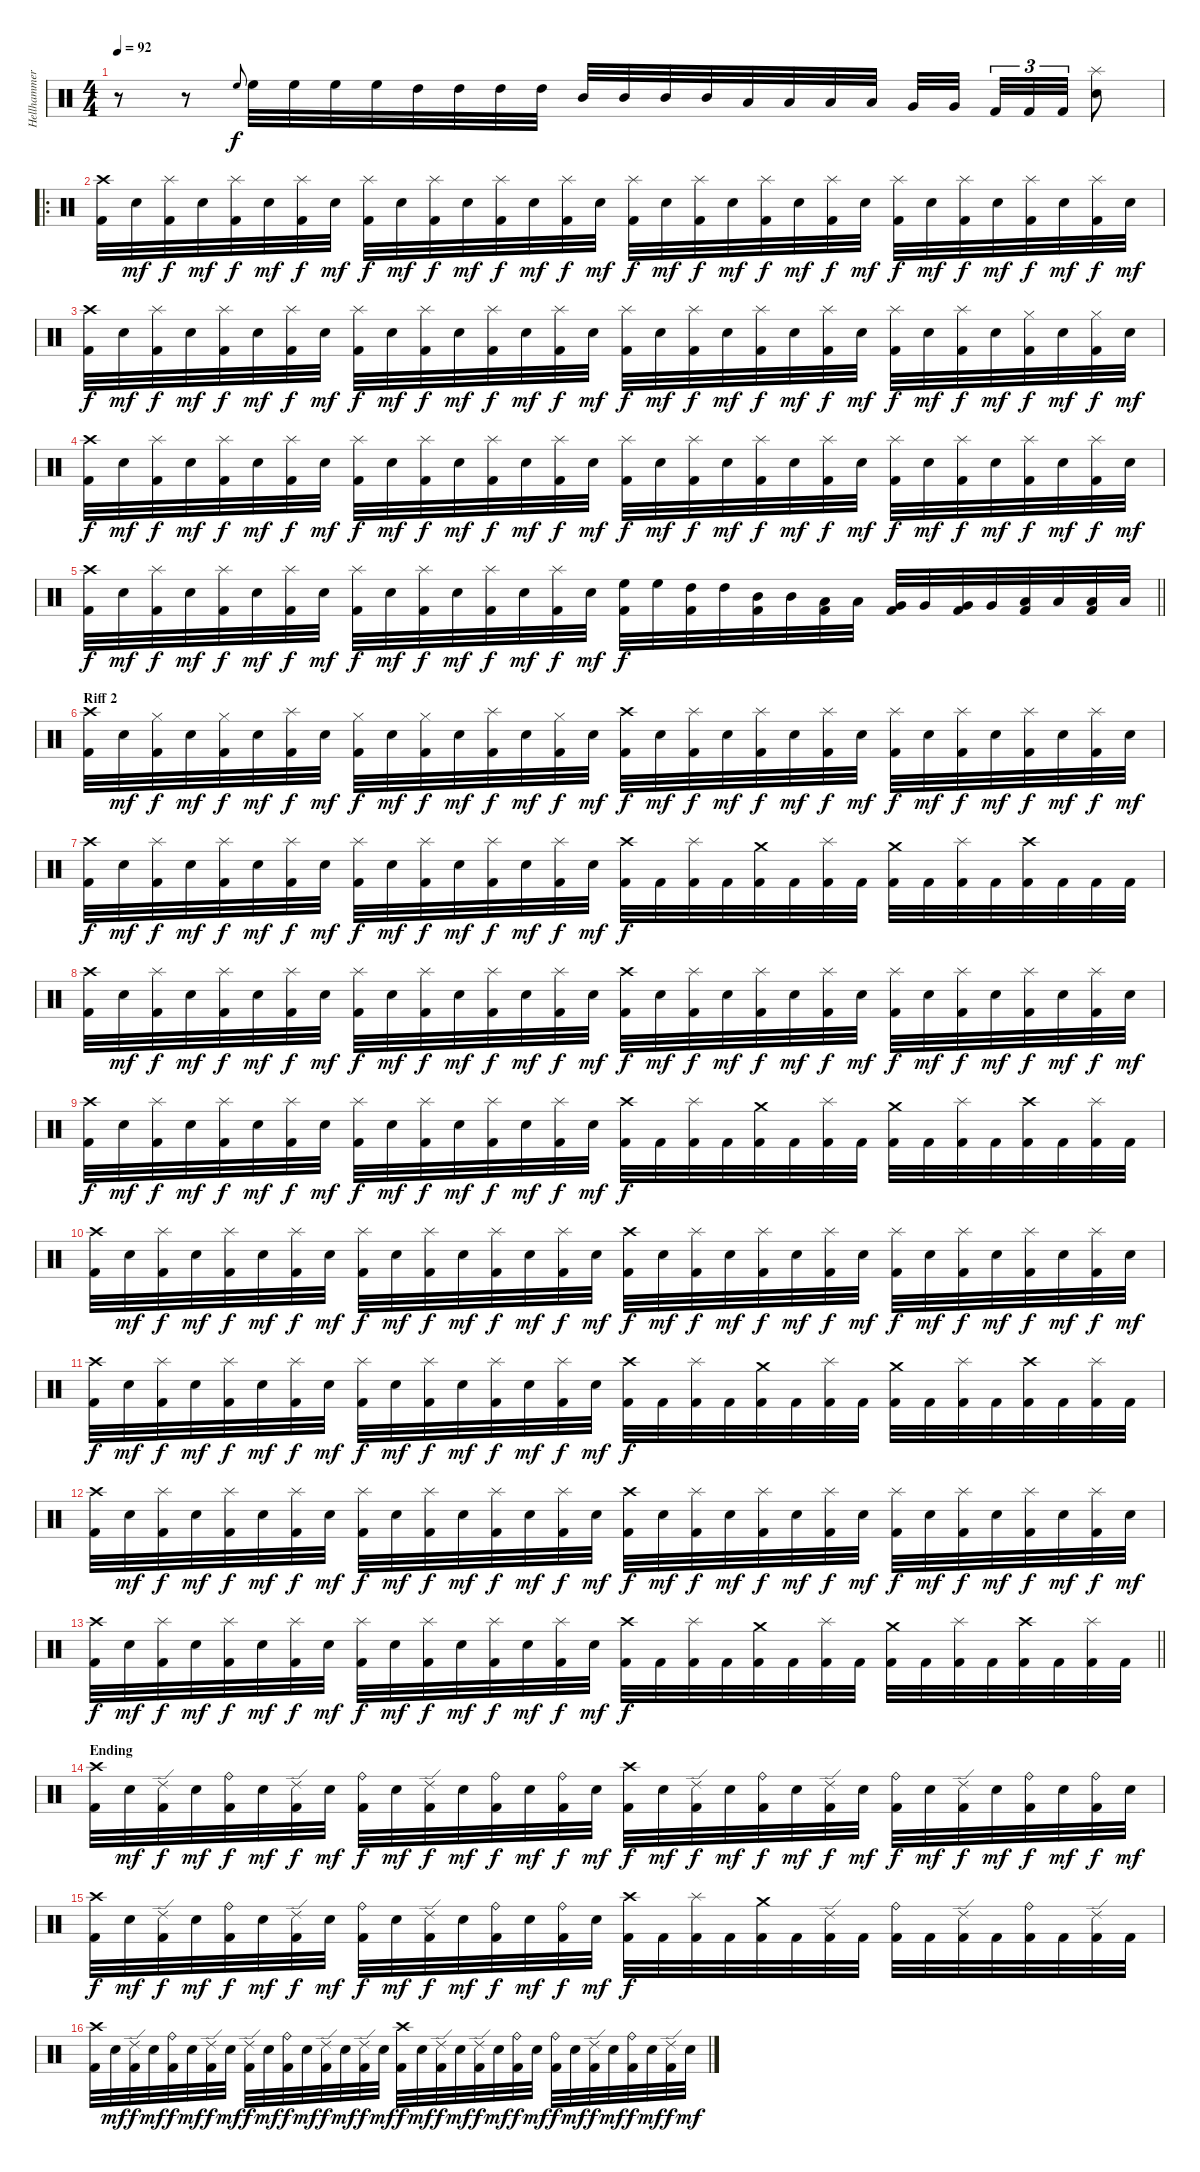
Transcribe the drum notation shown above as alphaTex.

\track ("Hellhammer" "Hellhammer") {instrument percussion}
\staff {score}
\articulation defaults
\ts (4 4)
\tempo 92
\clef neutral
\ks c
r.8{dy f} r.8 "High Floor Tom (hit)".8{gr onbeat} "High Floor Tom (hit)".32 "High Floor Tom (hit)".32 "High Floor Tom (hit)".32 "High Floor Tom (hit)".32 "High Tom (hit)".32 "High Tom (hit)".32 "High Tom (hit)".32 "High Tom (hit)".32 "Mid Tom (hit)".32 "Mid Tom (hit)".32 "Mid Tom (hit)".32 "Mid Tom (hit)".32 "Low Tom (hit)".32 "Low Tom (hit)".32 "Low Tom (hit)".32 "Low Tom (hit)".32 "Very Low Tom (hit)".32 "Very Low Tom (hit)".32{beam splitsecondary} "Kick (hit) 2".32{tu (3 2)} "Kick (hit) 2".32{tu (3 2)} "Kick (hit) 2".32{tu (3 2)} ("Splash (hit)" "Electric Snare (hit)").8 |
\ro
("Crash high (hit)" "Kick (hit) 2").32 "Electric Snare (hit)".32{dy mf} ("Splash (hit)" "Kick (hit) 2").32{dy f} "Electric Snare (hit)".32{dy mf} ("Splash (hit)" "Kick (hit) 2").32{dy f} "Electric Snare (hit)".32{dy mf} ("Splash (hit)" "Kick (hit) 2").32{dy f} "Electric Snare (hit)".32{dy mf} ("Splash (hit)" "Kick (hit) 2").32{dy f} "Electric Snare (hit)".32{dy mf} ("Splash (hit)" "Kick (hit) 2").32{dy f} "Electric Snare (hit)".32{dy mf} ("Splash (hit)" "Kick (hit) 2").32{dy f} "Electric Snare (hit)".32{dy mf} ("Splash (hit)" "Kick (hit) 2").32{dy f} "Electric Snare (hit)".32{dy mf} ("Splash (hit)" "Kick (hit) 2").32{dy f} "Electric Snare (hit)".32{dy mf} ("Splash (hit)" "Kick (hit) 2").32{dy f} "Electric Snare (hit)".32{dy mf} ("Splash (hit)" "Kick (hit) 2").32{dy f} "Electric Snare (hit)".32{dy mf} ("Splash (hit)" "Kick (hit) 2").32{dy f} "Electric Snare (hit)".32{dy mf} ("Splash (hit)" "Kick (hit) 2").32{dy f} "Electric Snare (hit)".32{dy mf} ("Splash (hit)" "Kick (hit) 2").32{dy f} "Electric Snare (hit)".32{dy mf} ("Splash (hit)" "Kick (hit) 2").32{dy f} "Electric Snare (hit)".32{dy mf} ("Splash (hit)" "Kick (hit) 2").32{dy f} "Electric Snare (hit)".32{dy mf} |
("Crash high (hit)" "Kick (hit) 2").32{dy f} "Electric Snare (hit)".32{dy mf} ("Splash (hit)" "Kick (hit) 2").32{dy f} "Electric Snare (hit)".32{dy mf} ("Splash (hit)" "Kick (hit) 2").32{dy f} "Electric Snare (hit)".32{dy mf} ("Splash (hit)" "Kick (hit) 2").32{dy f} "Electric Snare (hit)".32{dy mf} ("Splash (hit)" "Kick (hit) 2").32{dy f} "Electric Snare (hit)".32{dy mf} ("Splash (hit)" "Kick (hit) 2").32{dy f} "Electric Snare (hit)".32{dy mf} ("Splash (hit)" "Kick (hit) 2").32{dy f} "Electric Snare (hit)".32{dy mf} ("Splash (hit)" "Kick (hit) 2").32{dy f} "Electric Snare (hit)".32{dy mf} ("Splash (hit)" "Kick (hit) 2").32{dy f} "Electric Snare (hit)".32{dy mf} ("Splash (hit)" "Kick (hit) 2").32{dy f} "Electric Snare (hit)".32{dy mf} ("Splash (hit)" "Kick (hit) 2").32{dy f} "Electric Snare (hit)".32{dy mf} ("Splash (hit)" "Kick (hit) 2").32{dy f} "Electric Snare (hit)".32{dy mf} ("Splash (hit)" "Kick (hit) 2").32{dy f} "Electric Snare (hit)".32{dy mf} ("Splash (hit)" "Kick (hit) 2").32{dy f} "Electric Snare (hit)".32{dy mf} ("Hi-Hat (closed)" "Kick (hit) 2").32{dy f} "Electric Snare (hit)".32{dy mf} ("Hi-Hat (closed)" "Kick (hit) 2").32{dy f} "Electric Snare (hit)".32{dy mf} |
("Crash high (hit)" "Kick (hit) 2").32{dy f} "Electric Snare (hit)".32{dy mf} ("Splash (hit)" "Kick (hit) 2").32{dy f} "Electric Snare (hit)".32{dy mf} ("Splash (hit)" "Kick (hit) 2").32{dy f} "Electric Snare (hit)".32{dy mf} ("Splash (hit)" "Kick (hit) 2").32{dy f} "Electric Snare (hit)".32{dy mf} ("Splash (hit)" "Kick (hit) 2").32{dy f} "Electric Snare (hit)".32{dy mf} ("Splash (hit)" "Kick (hit) 2").32{dy f} "Electric Snare (hit)".32{dy mf} ("Splash (hit)" "Kick (hit) 2").32{dy f} "Electric Snare (hit)".32{dy mf} ("Splash (hit)" "Kick (hit) 2").32{dy f} "Electric Snare (hit)".32{dy mf} ("Splash (hit)" "Kick (hit) 2").32{dy f} "Electric Snare (hit)".32{dy mf} ("Splash (hit)" "Kick (hit) 2").32{dy f} "Electric Snare (hit)".32{dy mf} ("Splash (hit)" "Kick (hit) 2").32{dy f} "Electric Snare (hit)".32{dy mf} ("Splash (hit)" "Kick (hit) 2").32{dy f} "Electric Snare (hit)".32{dy mf} ("Splash (hit)" "Kick (hit) 2").32{dy f} "Electric Snare (hit)".32{dy mf} ("Splash (hit)" "Kick (hit) 2").32{dy f} "Electric Snare (hit)".32{dy mf} ("Splash (hit)" "Kick (hit) 2").32{dy f} "Electric Snare (hit)".32{dy mf} ("Splash (hit)" "Kick (hit) 2").32{dy f} "Electric Snare (hit)".32{dy mf} |
\barLineRight lightlight
("Crash high (hit)" "Kick (hit) 2").32{dy f} "Electric Snare (hit)".32{dy mf} ("Splash (hit)" "Kick (hit) 2").32{dy f} "Electric Snare (hit)".32{dy mf} ("Splash (hit)" "Kick (hit) 2").32{dy f} "Electric Snare (hit)".32{dy mf} ("Splash (hit)" "Kick (hit) 2").32{dy f} "Electric Snare (hit)".32{dy mf} ("Splash (hit)" "Kick (hit) 2").32{dy f} "Electric Snare (hit)".32{dy mf} ("Splash (hit)" "Kick (hit) 2").32{dy f} "Electric Snare (hit)".32{dy mf} ("Splash (hit)" "Kick (hit) 2").32{dy f} "Electric Snare (hit)".32{dy mf} ("Splash (hit)" "Kick (hit) 2").32{dy f} "Electric Snare (hit)".32{dy mf} ("High Floor Tom (hit)" "Kick (hit) 2").32{dy f} "High Floor Tom (hit)".32 ("High Tom (hit)" "Kick (hit) 2").32 "High Tom (hit)".32 ("Mid Tom (hit)" "Kick (hit) 2").32 "Mid Tom (hit)".32 ("Low Tom (hit)" "Kick (hit) 2").32 "Low Tom (hit)".32 ("Very Low Tom (hit)" "Kick (hit) 2").32 "Very Low Tom (hit)".32 ("Very Low Tom (hit)" "Kick (hit) 2").32 "Very Low Tom (hit)".32 ("Low Floor Tom (hit)" "Kick (hit) 2").32 "Low Floor Tom (hit)".32 ("Low Floor Tom (hit)" "Kick (hit) 2").32 "Low Floor Tom (hit)".32 |
\section ("" "Riff 2")
("Crash high (hit)" "Kick (hit) 2").32 "Electric Snare (hit)".32{dy mf} ("Hi-Hat (closed)" "Kick (hit) 2").32{dy f} "Electric Snare (hit)".32{dy mf} ("Hi-Hat (closed)" "Kick (hit) 2").32{dy f} "Electric Snare (hit)".32{dy mf} ("Splash (hit)" "Kick (hit) 2").32{dy f} "Electric Snare (hit)".32{dy mf} ("Hi-Hat (closed)" "Kick (hit) 2").32{dy f} "Electric Snare (hit)".32{dy mf} ("Hi-Hat (closed)" "Kick (hit) 2").32{dy f} "Electric Snare (hit)".32{dy mf} ("Splash (hit)" "Kick (hit) 2").32{dy f} "Electric Snare (hit)".32{dy mf} ("Hi-Hat (closed)" "Kick (hit) 2").32{dy f} "Electric Snare (hit)".32{dy mf} ("Crash high (hit)" "Kick (hit) 2").32{dy f} "Electric Snare (hit)".32{dy mf} ("Splash (hit)" "Kick (hit) 2").32{dy f} "Electric Snare (hit)".32{dy mf} ("Splash (hit)" "Kick (hit) 2").32{dy f} "Electric Snare (hit)".32{dy mf} ("Splash (hit)" "Kick (hit) 2").32{dy f} "Electric Snare (hit)".32{dy mf} ("Splash (hit)" "Kick (hit) 2").32{dy f} "Electric Snare (hit)".32{dy mf} ("Splash (hit)" "Kick (hit) 2").32{dy f} "Electric Snare (hit)".32{dy mf} ("Splash (hit)" "Kick (hit) 2").32{dy f} "Electric Snare (hit)".32{dy mf} ("Splash (hit)" "Kick (hit) 2").32{dy f} "Electric Snare (hit)".32{dy mf} |
("Crash high (hit)" "Kick (hit) 2").32{dy f} "Electric Snare (hit)".32{dy mf} ("Splash (hit)" "Kick (hit) 2").32{dy f} "Electric Snare (hit)".32{dy mf} ("Splash (hit)" "Kick (hit) 2").32{dy f} "Electric Snare (hit)".32{dy mf} ("Splash (hit)" "Kick (hit) 2").32{dy f} "Electric Snare (hit)".32{dy mf} ("Splash (hit)" "Kick (hit) 2").32{dy f} "Electric Snare (hit)".32{dy mf} ("Splash (hit)" "Kick (hit) 2").32{dy f} "Electric Snare (hit)".32{dy mf} ("Splash (hit)" "Kick (hit) 2").32{dy f} "Electric Snare (hit)".32{dy mf} ("Splash (hit)" "Kick (hit) 2").32{dy f} "Electric Snare (hit)".32{dy mf} ("Crash high (hit)" "Kick (hit) 2").32{dy f} "Kick (hit) 2".32 ("Splash (hit)" "Kick (hit) 2").32 "Kick (hit) 2".32 ("Crash medium (hit)" "Kick (hit) 2").32 "Kick (hit) 2".32 ("Splash (hit)" "Kick (hit) 2").32 "Kick (hit) 2".32 ("Crash medium (hit)" "Kick (hit) 2").32 "Kick (hit) 2".32 ("Splash (hit)" "Kick (hit) 2").32 "Kick (hit) 2".32 ("Crash high (hit)" "Kick (hit) 2").32 "Kick (hit) 2".32 "Kick (hit) 2".32 "Kick (hit) 2".32 |
("Crash high (hit)" "Kick (hit) 2").32 "Electric Snare (hit)".32{dy mf} ("Splash (hit)" "Kick (hit) 2").32{dy f} "Electric Snare (hit)".32{dy mf} ("Splash (hit)" "Kick (hit) 2").32{dy f} "Electric Snare (hit)".32{dy mf} ("Splash (hit)" "Kick (hit) 2").32{dy f} "Electric Snare (hit)".32{dy mf} ("Splash (hit)" "Kick (hit) 2").32{dy f} "Electric Snare (hit)".32{dy mf} ("Splash (hit)" "Kick (hit) 2").32{dy f} "Electric Snare (hit)".32{dy mf} ("Splash (hit)" "Kick (hit) 2").32{dy f} "Electric Snare (hit)".32{dy mf} ("Splash (hit)" "Kick (hit) 2").32{dy f} "Electric Snare (hit)".32{dy mf} ("Crash high (hit)" "Kick (hit) 2").32{dy f} "Electric Snare (hit)".32{dy mf} ("Splash (hit)" "Kick (hit) 2").32{dy f} "Electric Snare (hit)".32{dy mf} ("Splash (hit)" "Kick (hit) 2").32{dy f} "Electric Snare (hit)".32{dy mf} ("Splash (hit)" "Kick (hit) 2").32{dy f} "Electric Snare (hit)".32{dy mf} ("Splash (hit)" "Kick (hit) 2").32{dy f} "Electric Snare (hit)".32{dy mf} ("Splash (hit)" "Kick (hit) 2").32{dy f} "Electric Snare (hit)".32{dy mf} ("Splash (hit)" "Kick (hit) 2").32{dy f} "Electric Snare (hit)".32{dy mf} ("Splash (hit)" "Kick (hit) 2").32{dy f} "Electric Snare (hit)".32{dy mf} |
("Crash high (hit)" "Kick (hit) 2").32{dy f} "Electric Snare (hit)".32{dy mf} ("Splash (hit)" "Kick (hit) 2").32{dy f} "Electric Snare (hit)".32{dy mf} ("Splash (hit)" "Kick (hit) 2").32{dy f} "Electric Snare (hit)".32{dy mf} ("Splash (hit)" "Kick (hit) 2").32{dy f} "Electric Snare (hit)".32{dy mf} ("Splash (hit)" "Kick (hit) 2").32{dy f} "Electric Snare (hit)".32{dy mf} ("Splash (hit)" "Kick (hit) 2").32{dy f} "Electric Snare (hit)".32{dy mf} ("Splash (hit)" "Kick (hit) 2").32{dy f} "Electric Snare (hit)".32{dy mf} ("Splash (hit)" "Kick (hit) 2").32{dy f} "Electric Snare (hit)".32{dy mf} ("Crash high (hit)" "Kick (hit) 2").32{dy f} "Kick (hit) 2".32 ("Splash (hit)" "Kick (hit) 2").32 "Kick (hit) 2".32 ("Crash medium (hit)" "Kick (hit) 2").32 "Kick (hit) 2".32 ("Splash (hit)" "Kick (hit) 2").32 "Kick (hit) 2".32 ("Crash medium (hit)" "Kick (hit) 2").32 "Kick (hit) 2".32 ("Splash (hit)" "Kick (hit) 2").32 "Kick (hit) 2".32 ("Crash high (hit)" "Kick (hit) 2").32 "Kick (hit) 2".32 ("Splash (hit)" "Kick (hit) 2").32 "Kick (hit) 2".32 |
("Crash high (hit)" "Kick (hit) 2").32 "Electric Snare (hit)".32{dy mf} ("Splash (hit)" "Kick (hit) 2").32{dy f} "Electric Snare (hit)".32{dy mf} ("Splash (hit)" "Kick (hit) 2").32{dy f} "Electric Snare (hit)".32{dy mf} ("Splash (hit)" "Kick (hit) 2").32{dy f} "Electric Snare (hit)".32{dy mf} ("Splash (hit)" "Kick (hit) 2").32{dy f} "Electric Snare (hit)".32{dy mf} ("Splash (hit)" "Kick (hit) 2").32{dy f} "Electric Snare (hit)".32{dy mf} ("Splash (hit)" "Kick (hit) 2").32{dy f} "Electric Snare (hit)".32{dy mf} ("Splash (hit)" "Kick (hit) 2").32{dy f} "Electric Snare (hit)".32{dy mf} ("Crash high (hit)" "Kick (hit) 2").32{dy f} "Electric Snare (hit)".32{dy mf} ("Splash (hit)" "Kick (hit) 2").32{dy f} "Electric Snare (hit)".32{dy mf} ("Splash (hit)" "Kick (hit) 2").32{dy f} "Electric Snare (hit)".32{dy mf} ("Splash (hit)" "Kick (hit) 2").32{dy f} "Electric Snare (hit)".32{dy mf} ("Splash (hit)" "Kick (hit) 2").32{dy f} "Electric Snare (hit)".32{dy mf} ("Splash (hit)" "Kick (hit) 2").32{dy f} "Electric Snare (hit)".32{dy mf} ("Splash (hit)" "Kick (hit) 2").32{dy f} "Electric Snare (hit)".32{dy mf} ("Splash (hit)" "Kick (hit) 2").32{dy f} "Electric Snare (hit)".32{dy mf} |
("Crash high (hit)" "Kick (hit) 2").32{dy f} "Electric Snare (hit)".32{dy mf} ("Splash (hit)" "Kick (hit) 2").32{dy f} "Electric Snare (hit)".32{dy mf} ("Splash (hit)" "Kick (hit) 2").32{dy f} "Electric Snare (hit)".32{dy mf} ("Splash (hit)" "Kick (hit) 2").32{dy f} "Electric Snare (hit)".32{dy mf} ("Splash (hit)" "Kick (hit) 2").32{dy f} "Electric Snare (hit)".32{dy mf} ("Splash (hit)" "Kick (hit) 2").32{dy f} "Electric Snare (hit)".32{dy mf} ("Splash (hit)" "Kick (hit) 2").32{dy f} "Electric Snare (hit)".32{dy mf} ("Splash (hit)" "Kick (hit) 2").32{dy f} "Electric Snare (hit)".32{dy mf} ("Crash high (hit)" "Kick (hit) 2").32{dy f} "Kick (hit) 2".32 ("Splash (hit)" "Kick (hit) 2").32 "Kick (hit) 2".32 ("Crash medium (hit)" "Kick (hit) 2").32 "Kick (hit) 2".32 ("Splash (hit)" "Kick (hit) 2").32 "Kick (hit) 2".32 ("Crash medium (hit)" "Kick (hit) 2").32 "Kick (hit) 2".32 ("Splash (hit)" "Kick (hit) 2").32 "Kick (hit) 2".32 ("Crash high (hit)" "Kick (hit) 2").32 "Kick (hit) 2".32 ("Splash (hit)" "Kick (hit) 2").32 "Kick (hit) 2".32 |
("Crash high (hit)" "Kick (hit) 2").32 "Electric Snare (hit)".32{dy mf} ("Splash (hit)" "Kick (hit) 2").32{dy f} "Electric Snare (hit)".32{dy mf} ("Splash (hit)" "Kick (hit) 2").32{dy f} "Electric Snare (hit)".32{dy mf} ("Splash (hit)" "Kick (hit) 2").32{dy f} "Electric Snare (hit)".32{dy mf} ("Splash (hit)" "Kick (hit) 2").32{dy f} "Electric Snare (hit)".32{dy mf} ("Splash (hit)" "Kick (hit) 2").32{dy f} "Electric Snare (hit)".32{dy mf} ("Splash (hit)" "Kick (hit) 2").32{dy f} "Electric Snare (hit)".32{dy mf} ("Splash (hit)" "Kick (hit) 2").32{dy f} "Electric Snare (hit)".32{dy mf} ("Crash high (hit)" "Kick (hit) 2").32{dy f} "Electric Snare (hit)".32{dy mf} ("Splash (hit)" "Kick (hit) 2").32{dy f} "Electric Snare (hit)".32{dy mf} ("Splash (hit)" "Kick (hit) 2").32{dy f} "Electric Snare (hit)".32{dy mf} ("Splash (hit)" "Kick (hit) 2").32{dy f} "Electric Snare (hit)".32{dy mf} ("Splash (hit)" "Kick (hit) 2").32{dy f} "Electric Snare (hit)".32{dy mf} ("Splash (hit)" "Kick (hit) 2").32{dy f} "Electric Snare (hit)".32{dy mf} ("Splash (hit)" "Kick (hit) 2").32{dy f} "Electric Snare (hit)".32{dy mf} ("Splash (hit)" "Kick (hit) 2").32{dy f} "Electric Snare (hit)".32{dy mf} |
\barLineRight lightlight
("Crash high (hit)" "Kick (hit) 2").32{dy f} "Electric Snare (hit)".32{dy mf} ("Splash (hit)" "Kick (hit) 2").32{dy f} "Electric Snare (hit)".32{dy mf} ("Splash (hit)" "Kick (hit) 2").32{dy f} "Electric Snare (hit)".32{dy mf} ("Splash (hit)" "Kick (hit) 2").32{dy f} "Electric Snare (hit)".32{dy mf} ("Splash (hit)" "Kick (hit) 2").32{dy f} "Electric Snare (hit)".32{dy mf} ("Splash (hit)" "Kick (hit) 2").32{dy f} "Electric Snare (hit)".32{dy mf} ("Splash (hit)" "Kick (hit) 2").32{dy f} "Electric Snare (hit)".32{dy mf} ("Splash (hit)" "Kick (hit) 2").32{dy f} "Electric Snare (hit)".32{dy mf} ("Crash high (hit)" "Kick (hit) 2").32{dy f} "Kick (hit) 2".32 ("Splash (hit)" "Kick (hit) 2").32 "Kick (hit) 2".32 ("Crash medium (hit)" "Kick (hit) 2").32 "Kick (hit) 2".32 ("Splash (hit)" "Kick (hit) 2").32 "Kick (hit) 2".32 ("Crash medium (hit)" "Kick (hit) 2").32 "Kick (hit) 2".32 ("Splash (hit)" "Kick (hit) 2").32 "Kick (hit) 2".32 ("Crash high (hit)" "Kick (hit) 2").32 "Kick (hit) 2".32 ("Splash (hit)" "Kick (hit) 2").32 "Kick (hit) 2".32 |
\section ("" "Ending")
("Crash high (hit)" "Kick (hit) 2").32 "Electric Snare (hit)".32{dy mf} ("Ride (edge) 2" "Kick (hit) 2").32{dy f} "Electric Snare (hit)".32{dy mf} ("Ride (bell)" "Kick (hit) 2").32{dy f} "Electric Snare (hit)".32{dy mf} ("Ride (edge) 2" "Kick (hit) 2").32{dy f} "Electric Snare (hit)".32{dy mf} ("Ride (bell)" "Kick (hit) 2").32{dy f} "Electric Snare (hit)".32{dy mf} ("Ride (edge) 2" "Kick (hit) 2").32{dy f} "Electric Snare (hit)".32{dy mf} ("Ride (bell)" "Kick (hit) 2").32{dy f} "Electric Snare (hit)".32{dy mf} ("Ride (bell)" "Kick (hit) 2").32{dy f} "Electric Snare (hit)".32{dy mf} ("Crash high (hit)" "Kick (hit) 2").32{dy f} "Electric Snare (hit)".32{dy mf} ("Ride (edge) 2" "Kick (hit) 2").32{dy f} "Electric Snare (hit)".32{dy mf} ("Ride (bell)" "Kick (hit) 2").32{dy f} "Electric Snare (hit)".32{dy mf} ("Ride (edge) 2" "Kick (hit) 2").32{dy f} "Electric Snare (hit)".32{dy mf} ("Ride (bell)" "Kick (hit) 2").32{dy f} "Electric Snare (hit)".32{dy mf} ("Ride (edge) 2" "Kick (hit) 2").32{dy f} "Electric Snare (hit)".32{dy mf} ("Ride (bell)" "Kick (hit) 2").32{dy f} "Electric Snare (hit)".32{dy mf} ("Ride (bell)" "Kick (hit) 2").32{dy f} "Electric Snare (hit)".32{dy mf} |
("Crash high (hit)" "Kick (hit) 2").32{dy f} "Electric Snare (hit)".32{dy mf} ("Ride (edge) 2" "Kick (hit) 2").32{dy f} "Electric Snare (hit)".32{dy mf} ("Ride (bell)" "Kick (hit) 2").32{dy f} "Electric Snare (hit)".32{dy mf} ("Ride (edge) 2" "Kick (hit) 2").32{dy f} "Electric Snare (hit)".32{dy mf} ("Ride (bell)" "Kick (hit) 2").32{dy f} "Electric Snare (hit)".32{dy mf} ("Ride (edge) 2" "Kick (hit) 2").32{dy f} "Electric Snare (hit)".32{dy mf} ("Ride (bell)" "Kick (hit) 2").32{dy f} "Electric Snare (hit)".32{dy mf} ("Ride (bell)" "Kick (hit) 2").32{dy f} "Electric Snare (hit)".32{dy mf} ("Crash high (hit)" "Kick (hit) 2").32{dy f} "Kick (hit) 2".32 ("Splash (hit)" "Kick (hit) 2").32 "Kick (hit) 2".32 ("Crash medium (hit)" "Kick (hit) 2").32 "Kick (hit) 2".32 ("Ride (edge) 2" "Kick (hit) 2").32 "Kick (hit) 2".32 ("Ride (bell)" "Kick (hit) 2").32 "Kick (hit) 2".32 ("Ride (edge) 2" "Kick (hit) 2").32 "Kick (hit) 2".32 ("Ride (bell)" "Kick (hit) 2").32 "Kick (hit) 2".32 ("Ride (edge) 2" "Kick (hit) 2").32 "Kick (hit) 2".32 |
("Crash high (hit)" "Kick (hit) 2").32 "Electric Snare (hit)".32{dy mf} ("Ride (edge) 2" "Kick (hit) 2").32{dy f} "Electric Snare (hit)".32{dy mf} ("Ride (bell)" "Kick (hit) 2").32{dy f} "Electric Snare (hit)".32{dy mf} ("Ride (edge) 2" "Kick (hit) 2").32{dy f} "Electric Snare (hit)".32{dy mf} ("Ride (edge) 2" "Kick (hit) 2").32{dy f} "Electric Snare (hit)".32{dy mf} ("Ride (bell)" "Kick (hit) 2").32{dy f} "Electric Snare (hit)".32{dy mf} ("Ride (edge) 2" "Kick (hit) 2").32{dy f} "Electric Snare (hit)".32{dy mf} ("Ride (edge) 2" "Kick (hit) 2").32{dy f} "Electric Snare (hit)".32{dy mf} ("Crash high (hit)" "Kick (hit) 2").32{dy f} "Electric Snare (hit)".32{dy mf} ("Ride (edge) 2" "Kick (hit) 2").32{dy f} "Electric Snare (hit)".32{dy mf} ("Ride (edge) 2" "Kick (hit) 2").32{dy f} "Electric Snare (hit)".32{dy mf} ("Ride (bell)" "Kick (hit) 2").32{dy f} "Electric Snare (hit)".32{dy mf} ("Ride (bell)" "Kick (hit) 2").32{dy f} "Electric Snare (hit)".32{dy mf} ("Ride (edge) 2" "Kick (hit) 2").32{dy f} "Electric Snare (hit)".32{dy mf} ("Ride (bell)" "Kick (hit) 2").32{dy f} "Electric Snare (hit)".32{dy mf} ("Ride (edge) 2" "Kick (hit) 2").32{dy f} "Electric Snare (hit)".32{dy mf}
